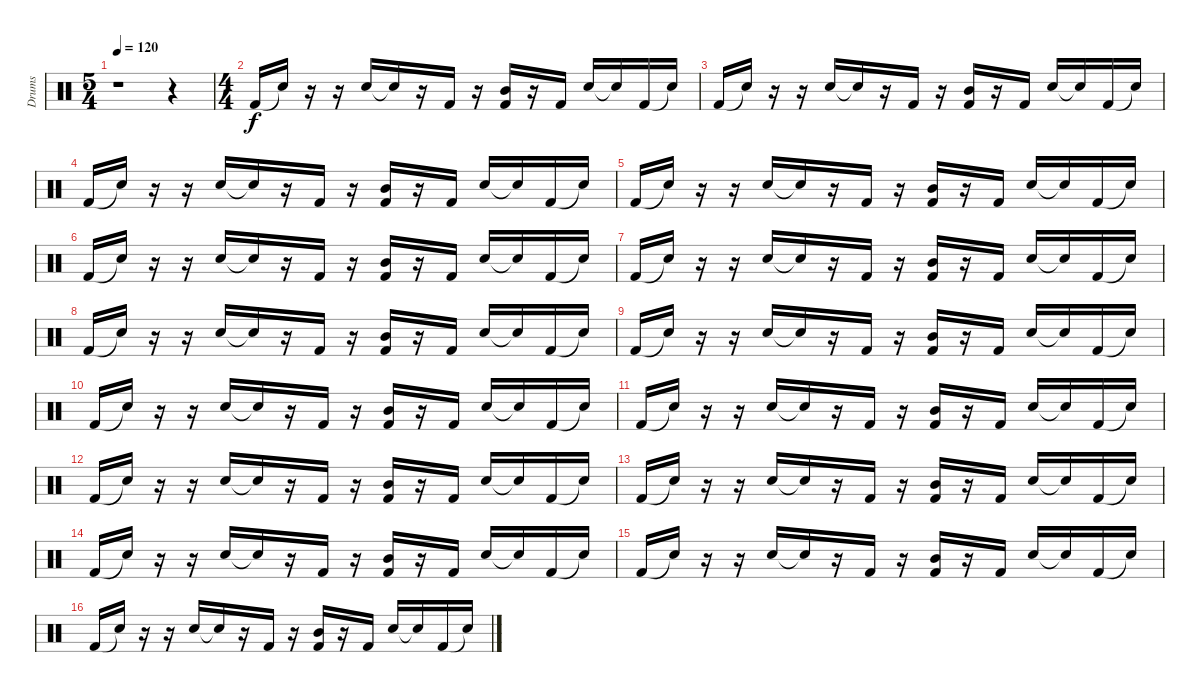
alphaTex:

\track ("Drums" "Drums") {instrument percussion}
\staff {score}
\articulation defaults
\ts (5 4)
\tempo 120
\clef neutral
\ks c
r.1{dy f} r.4 |
\ts (4 4)
"Kick (hit) 2".16 "Snare (hit)"{t}.16 r.16 r.16 "Snare (hit) 2".16 "Snare (hit)"{t}.16 r.16 "Kick (hit) 2".16 r.16 ("Mid Tom (hit)" "Kick (hit) 2").16 r.16 "Kick (hit) 2".16 "Snare (hit) 2".16 "Snare (hit)"{t}.16 "Kick (hit) 2".16 "Snare (hit)"{t}.16 |
"Kick (hit) 2".16 "Snare (hit)"{t}.16 r.16 r.16 "Snare (hit) 2".16 "Snare (hit)"{t}.16 r.16 "Kick (hit) 2".16 r.16 ("Mid Tom (hit)" "Kick (hit) 2").16 r.16 "Kick (hit) 2".16 "Snare (hit) 2".16 "Snare (hit)"{t}.16 "Kick (hit) 2".16 "Snare (hit)"{t}.16 |
"Kick (hit) 2".16 "Snare (hit)"{t}.16 r.16 r.16 "Snare (hit) 2".16 "Snare (hit)"{t}.16 r.16 "Kick (hit) 2".16 r.16 ("Mid Tom (hit)" "Kick (hit) 2").16 r.16 "Kick (hit) 2".16 "Snare (hit) 2".16 "Snare (hit)"{t}.16 "Kick (hit) 2".16 "Snare (hit)"{t}.16 |
"Kick (hit) 2".16 "Snare (hit)"{t}.16 r.16 r.16 "Snare (hit) 2".16 "Snare (hit)"{t}.16 r.16 "Kick (hit) 2".16 r.16 ("Mid Tom (hit)" "Kick (hit) 2").16 r.16 "Kick (hit) 2".16 "Snare (hit) 2".16 "Snare (hit)"{t}.16 "Kick (hit) 2".16 "Snare (hit)"{t}.16 |
"Kick (hit) 2".16 "Snare (hit)"{t}.16 r.16 r.16 "Snare (hit) 2".16 "Snare (hit)"{t}.16 r.16 "Kick (hit) 2".16 r.16 ("Mid Tom (hit)" "Kick (hit) 2").16 r.16 "Kick (hit) 2".16 "Snare (hit) 2".16 "Snare (hit)"{t}.16 "Kick (hit) 2".16 "Snare (hit)"{t}.16 |
"Kick (hit) 2".16 "Snare (hit)"{t}.16 r.16 r.16 "Snare (hit) 2".16 "Snare (hit)"{t}.16 r.16 "Kick (hit) 2".16 r.16 ("Mid Tom (hit)" "Kick (hit) 2").16 r.16 "Kick (hit) 2".16 "Snare (hit) 2".16 "Snare (hit)"{t}.16 "Kick (hit) 2".16 "Snare (hit)"{t}.16 |
"Kick (hit) 2".16 "Snare (hit)"{t}.16 r.16 r.16 "Snare (hit) 2".16 "Snare (hit)"{t}.16 r.16 "Kick (hit) 2".16 r.16 ("Mid Tom (hit)" "Kick (hit) 2").16 r.16 "Kick (hit) 2".16 "Snare (hit) 2".16 "Snare (hit)"{t}.16 "Kick (hit) 2".16 "Snare (hit)"{t}.16 |
"Kick (hit) 2".16 "Snare (hit)"{t}.16 r.16 r.16 "Snare (hit) 2".16 "Snare (hit)"{t}.16 r.16 "Kick (hit) 2".16 r.16 ("Mid Tom (hit)" "Kick (hit) 2").16 r.16 "Kick (hit) 2".16 "Snare (hit) 2".16 "Snare (hit)"{t}.16 "Kick (hit) 2".16 "Snare (hit)"{t}.16 |
"Kick (hit) 2".16 "Snare (hit)"{t}.16 r.16 r.16 "Snare (hit) 2".16 "Snare (hit)"{t}.16 r.16 "Kick (hit) 2".16 r.16 ("Mid Tom (hit)" "Kick (hit) 2").16 r.16 "Kick (hit) 2".16 "Snare (hit) 2".16 "Snare (hit)"{t}.16 "Kick (hit) 2".16 "Snare (hit)"{t}.16 |
"Kick (hit) 2".16 "Snare (hit)"{t}.16 r.16 r.16 "Snare (hit) 2".16 "Snare (hit)"{t}.16 r.16 "Kick (hit) 2".16 r.16 ("Mid Tom (hit)" "Kick (hit) 2").16 r.16 "Kick (hit) 2".16 "Snare (hit) 2".16 "Snare (hit)"{t}.16 "Kick (hit) 2".16 "Snare (hit)"{t}.16 |
"Kick (hit) 2".16 "Snare (hit)"{t}.16 r.16 r.16 "Snare (hit) 2".16 "Snare (hit)"{t}.16 r.16 "Kick (hit) 2".16 r.16 ("Mid Tom (hit)" "Kick (hit) 2").16 r.16 "Kick (hit) 2".16 "Snare (hit) 2".16 "Snare (hit)"{t}.16 "Kick (hit) 2".16 "Snare (hit)"{t}.16 |
"Kick (hit) 2".16 "Snare (hit)"{t}.16 r.16 r.16 "Snare (hit) 2".16 "Snare (hit)"{t}.16 r.16 "Kick (hit) 2".16 r.16 ("Mid Tom (hit)" "Kick (hit) 2").16 r.16 "Kick (hit) 2".16 "Snare (hit) 2".16 "Snare (hit)"{t}.16 "Kick (hit) 2".16 "Snare (hit)"{t}.16 |
"Kick (hit) 2".16 "Snare (hit)"{t}.16 r.16 r.16 "Snare (hit) 2".16 "Snare (hit)"{t}.16 r.16 "Kick (hit) 2".16 r.16 ("Mid Tom (hit)" "Kick (hit) 2").16 r.16 "Kick (hit) 2".16 "Snare (hit) 2".16 "Snare (hit)"{t}.16 "Kick (hit) 2".16 "Snare (hit)"{t}.16 |
"Kick (hit) 2".16 "Snare (hit)"{t}.16 r.16 r.16 "Snare (hit) 2".16 "Snare (hit)"{t}.16 r.16 "Kick (hit) 2".16 r.16 ("Mid Tom (hit)" "Kick (hit) 2").16 r.16 "Kick (hit) 2".16 "Snare (hit) 2".16 "Snare (hit)"{t}.16 "Kick (hit) 2".16 "Snare (hit)"{t}.16 |
"Kick (hit) 2".16 "Snare (hit)"{t}.16 r.16 r.16 "Snare (hit) 2".16 "Snare (hit)"{t}.16 r.16 "Kick (hit) 2".16 r.16 ("Mid Tom (hit)" "Kick (hit) 2").16 r.16 "Kick (hit) 2".16 "Snare (hit) 2".16 "Snare (hit)"{t}.16 "Kick (hit) 2".16 "Snare (hit)"{t}.16
